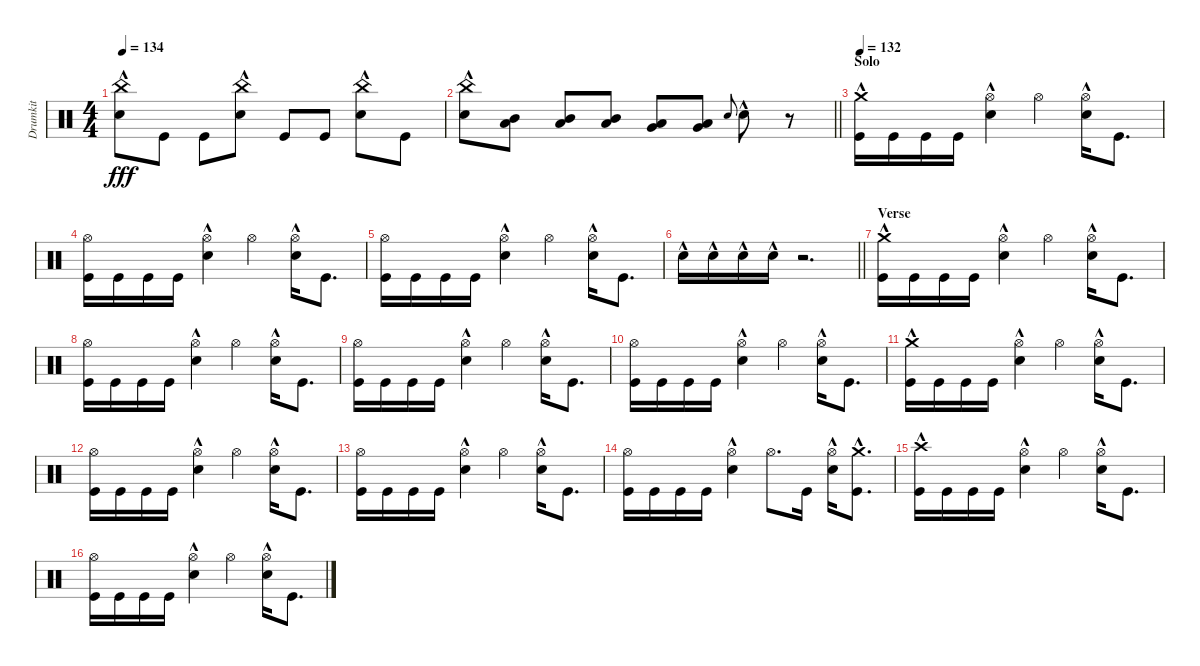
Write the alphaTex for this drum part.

\track ("Drumkit" "Drumkit") {instrument percussion}
\staff {score}
\articulation defaults
\ts (4 4)
\tempo 134
\clef neutral
\ks c
("Snare (hit) 2"{hac} "China (hit)"{hac}).8{dy fff} "Kick (hit)".8 "Kick (hit)".8 ("Snare (hit) 2"{hac} "China (hit)"{hac}).8 "Kick (hit)".8 "Kick (hit)".8 ("Snare (hit) 2"{hac} "China (hit)"{hac}).8 "Kick (hit)".8 |
\barLineRight lightlight
("Snare (hit) 2"{hac} "China (hit)"{hac}).8 ("Mid Tom (hit)" "Low Tom (hit)").8 ("Low Tom (hit)" "Mid Tom (hit)").8 ("Mid Tom (hit)" "Low Tom (hit)").8 ("Low Tom (hit)" "Very Low Tom (hit)").8 ("Low Tom (hit)" "Very Low Tom (hit)").8 "Snare (hit)".8{gr onbeat} "Snare (hit) 2"{hac}.8 r.8 |
\section ("" "Solo")
\tempo 132
("Kick (hit)" "Crash medium (hit)"{hac}).16 "Kick (hit)".16 "Kick (hit)".16 "Kick (hit)".16 ("Snare (hit) 2"{hac} "Hi-Hat (open)").4 "Hi-Hat (open)".4 ("Snare (hit) 2"{hac} "Hi-Hat (open)").16 "Kick (hit)".8{d} |
("Kick (hit)" "Hi-Hat (open)").16 "Kick (hit)".16 "Kick (hit)".16 "Kick (hit)".16 ("Snare (hit) 2"{hac} "Hi-Hat (open)").4 "Hi-Hat (open)".4 ("Snare (hit) 2"{hac} "Hi-Hat (open)").16 "Kick (hit)".8{d} |
("Kick (hit)" "Hi-Hat (open)").16 "Kick (hit)".16 "Kick (hit)".16 "Kick (hit)".16 ("Snare (hit) 2"{hac} "Hi-Hat (open)").4 "Hi-Hat (open)".4 ("Snare (hit) 2"{hac} "Hi-Hat (open)").16 "Kick (hit)".8{d} |
\barLineRight lightlight "Snare (hit) 2"{hac}.16 "Snare (hit) 2"{hac}.16 "Snare (hit) 2"{hac}.16 "Snare (hit) 2"{hac}.16
r.2{d} |
\section ("" "Verse")
("Kick (hit)" "Crash medium (hit)"{hac}).16 "Kick (hit)".16 "Kick (hit)".16 "Kick (hit)".16 ("Snare (hit) 2"{hac} "Hi-Hat (open)").4 "Hi-Hat (open)".4 ("Snare (hit) 2"{hac} "Hi-Hat (open)").16 "Kick (hit)".8{d} |
("Kick (hit)" "Hi-Hat (open)").16 "Kick (hit)".16 "Kick (hit)".16 "Kick (hit)".16 ("Snare (hit) 2"{hac} "Hi-Hat (open)").4 "Hi-Hat (open)".4 ("Snare (hit) 2"{hac} "Hi-Hat (open)").16 "Kick (hit)".8{d} |
("Kick (hit)" "Hi-Hat (open)").16 "Kick (hit)".16 "Kick (hit)".16 "Kick (hit)".16 ("Snare (hit) 2"{hac} "Hi-Hat (open)").4 "Hi-Hat (open)".4 ("Snare (hit) 2"{hac} "Hi-Hat (open)").16 "Kick (hit)".8{d} |
("Kick (hit)" "Hi-Hat (open)").16 "Kick (hit)".16 "Kick (hit)".16 "Kick (hit)".16 ("Snare (hit) 2"{hac} "Hi-Hat (open)").4 "Hi-Hat (open)".4 ("Snare (hit) 2"{hac} "Hi-Hat (open)").16 "Kick (hit)".8{d} |
("Kick (hit)" "Crash medium (hit)"{hac}).16 "Kick (hit)".16 "Kick (hit)".16 "Kick (hit)".16 ("Snare (hit) 2"{hac} "Hi-Hat (open)").4 "Hi-Hat (open)".4 ("Snare (hit) 2"{hac} "Hi-Hat (open)").16 "Kick (hit)".8{d} |
("Kick (hit)" "Hi-Hat (open)").16 "Kick (hit)".16 "Kick (hit)".16 "Kick (hit)".16 ("Snare (hit) 2"{hac} "Hi-Hat (open)").4 "Hi-Hat (open)".4 ("Snare (hit) 2"{hac} "Hi-Hat (open)").16 "Kick (hit)".8{d} |
("Kick (hit)" "Hi-Hat (open)").16 "Kick (hit)".16 "Kick (hit)".16 "Kick (hit)".16 ("Snare (hit) 2"{hac} "Hi-Hat (open)").4 "Hi-Hat (open)".4 ("Snare (hit) 2"{hac} "Hi-Hat (open)").16 "Kick (hit)".8{d} |
("Kick (hit)" "Hi-Hat (open)").16 "Kick (hit)".16 "Kick (hit)".16 "Kick (hit)".16 ("Snare (hit) 2"{hac} "Hi-Hat (open)").4 "Hi-Hat (open)".8{d} "Kick (hit)".16 ("Snare (hit) 2"{hac} "Hi-Hat (open)").16 ("Kick (hit)" "Crash medium (hit)"{hac}).8{d} |
("Kick (hit)" "Crash high (hit)"{hac}).16 "Kick (hit)".16 "Kick (hit)".16 "Kick (hit)".16 ("Snare (hit) 2"{hac} "Hi-Hat (open)").4 "Hi-Hat (open)".4 ("Snare (hit) 2"{hac} "Hi-Hat (open)").16 "Kick (hit)".8{d} |
("Kick (hit)" "Hi-Hat (open)").16 "Kick (hit)".16 "Kick (hit)".16 "Kick (hit)".16 ("Snare (hit) 2"{hac} "Hi-Hat (open)").4 "Hi-Hat (open)".4 ("Snare (hit) 2"{hac} "Hi-Hat (open)").16 "Kick (hit)".8{d}
